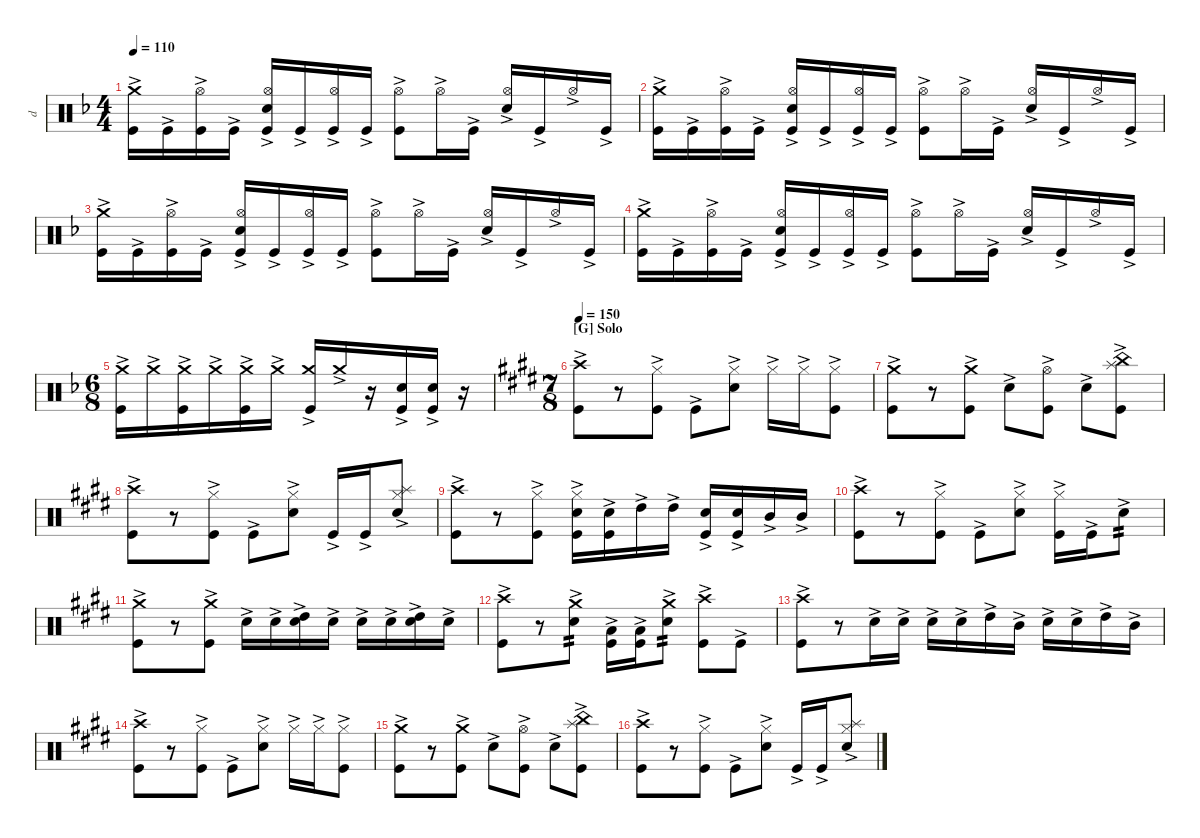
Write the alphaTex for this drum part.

\defaultSystemsLayout 4
\hideDynamics
\bracketExtendMode nobrackets
\otherSystemsTrackNameOrientation horizontal
\track ("Drumkit" "d") {instrument percussion}
\staff {score}
\articulation defaults
\ts (4 4)
\tempo 110
\clef neutral
\ks dminor
("Crash medium (hit)"{ac acc forcenatural} "Kick (hit)"{ac acc forcenatural}).16{dy ff beam Down} "Kick (hit)"{ac acc forcenatural}.16{dy mf beam Down} ("Hi-Hat (open)"{ac acc forcenatural} "Kick (hit)"{ac acc forcenatural}).16{beam Down} "Kick (hit)"{ac acc forcenatural}.16{beam Down} ("Hi-Hat (open)"{ac acc forcenatural} "Snare (hit) 2"{ac acc forcenatural} "Kick (hit)"{ac acc forcenatural}).16{beam Up} "Kick (hit)"{ac acc forcenatural}.16{beam Up} ("Hi-Hat (open)"{ac acc forcenatural} "Kick (hit)"{ac acc forcenatural}).16{beam Up} "Kick (hit)"{ac acc forcenatural}.16{beam Up} ("Hi-Hat (open)"{ac acc forcenatural} "Kick (hit)"{ac acc forcenatural}).8{beam Down} "Hi-Hat (open)"{ac acc forcenatural}.16{beam Down} "Kick (hit)"{ac acc forcenatural}.16{beam Down} ("Hi-Hat (open)"{ac acc forcenatural} "Snare (hit) 2"{ac acc forcenatural}).16{beam Up} "Kick (hit)"{ac acc forcenatural}.16{beam Up} "Hi-Hat (open)"{ac acc forcenatural}.16{beam Up} "Kick (hit)"{ac acc forcenatural}.16{beam Up} |
("Crash medium (hit)"{ac acc forcenatural} "Kick (hit)"{ac acc forcenatural}).16{dy ff beam Down} "Kick (hit)"{ac acc forcenatural}.16{dy mf beam Down} ("Hi-Hat (open)"{ac acc forcenatural} "Kick (hit)"{ac acc forcenatural}).16{beam Down} "Kick (hit)"{ac acc forcenatural}.16{beam Down} ("Hi-Hat (open)"{ac acc forcenatural} "Snare (hit) 2"{ac acc forcenatural} "Kick (hit)"{ac acc forcenatural}).16{beam Up} "Kick (hit)"{ac acc forcenatural}.16{beam Up} ("Hi-Hat (open)"{ac acc forcenatural} "Kick (hit)"{ac acc forcenatural}).16{beam Up} "Kick (hit)"{ac acc forcenatural}.16{beam Up} ("Hi-Hat (open)"{ac acc forcenatural} "Kick (hit)"{ac acc forcenatural}).8{beam Down} "Hi-Hat (open)"{ac acc forcenatural}.16{beam Down} "Kick (hit)"{ac acc forcenatural}.16{beam Down} ("Hi-Hat (open)"{ac acc forcenatural} "Snare (hit) 2"{ac acc forcenatural}).16{beam Up} "Kick (hit)"{ac acc forcenatural}.16{beam Up} "Hi-Hat (open)"{ac acc forcenatural}.16{beam Up} "Kick (hit)"{ac acc forcenatural}.16{beam Up} |
("Crash medium (hit)"{ac acc forcenatural} "Kick (hit)"{ac acc forcenatural}).16{dy ff beam Down} "Kick (hit)"{ac acc forcenatural}.16{dy mf beam Down} ("Hi-Hat (open)"{ac acc forcenatural} "Kick (hit)"{ac acc forcenatural}).16{beam Down} "Kick (hit)"{ac acc forcenatural}.16{beam Down} ("Hi-Hat (open)"{ac acc forcenatural} "Snare (hit) 2"{ac acc forcenatural} "Kick (hit)"{ac acc forcenatural}).16{beam Up} "Kick (hit)"{ac acc forcenatural}.16{beam Up} ("Hi-Hat (open)"{ac acc forcenatural} "Kick (hit)"{ac acc forcenatural}).16{beam Up} "Kick (hit)"{ac acc forcenatural}.16{beam Up} ("Hi-Hat (open)"{ac acc forcenatural} "Kick (hit)"{ac acc forcenatural}).8{beam Down} "Hi-Hat (open)"{ac acc forcenatural}.16{beam Down} "Kick (hit)"{ac acc forcenatural}.16{beam Down} ("Hi-Hat (open)"{ac acc forcenatural} "Snare (hit) 2"{ac acc forcenatural}).16{beam Up} "Kick (hit)"{ac acc forcenatural}.16{beam Up} "Hi-Hat (open)"{ac acc forcenatural}.16{beam Up} "Kick (hit)"{ac acc forcenatural}.16{beam Up} |
("Crash medium (hit)"{ac acc forcenatural} "Kick (hit)"{ac acc forcenatural}).16{dy ff beam Down} "Kick (hit)"{ac acc forcenatural}.16{dy mf beam Down} ("Hi-Hat (open)"{ac acc forcenatural} "Kick (hit)"{ac acc forcenatural}).16{beam Down} "Kick (hit)"{ac acc forcenatural}.16{beam Down} ("Hi-Hat (open)"{ac acc forcenatural} "Snare (hit) 2"{ac acc forcenatural} "Kick (hit)"{ac acc forcenatural}).16{beam Up} "Kick (hit)"{ac acc forcenatural}.16{beam Up} ("Hi-Hat (open)"{ac acc forcenatural} "Kick (hit)"{ac acc forcenatural}).16{beam Up} "Kick (hit)"{ac acc forcenatural}.16{beam Up} ("Hi-Hat (open)"{ac acc forcenatural} "Kick (hit)"{ac acc forcenatural}).8{beam Down} "Hi-Hat (open)"{ac acc forcenatural}.16{beam Down} "Kick (hit)"{ac acc forcenatural}.16{beam Down} ("Hi-Hat (open)"{ac acc forcenatural} "Snare (hit) 2"{ac acc forcenatural}).16{beam Up} "Kick (hit)"{ac acc forcenatural}.16{beam Up} "Hi-Hat (open)"{ac acc forcenatural}.16{beam Up} "Kick (hit)"{ac acc forcenatural}.16{beam Up} |
\ts (6 8)
\beaming (8 3 3)
("Crash medium (hit)"{ac acc forcenatural} "Kick (hit)"{ac acc forcenatural}).16{beam Down} "Crash medium (hit)"{ac acc forcenatural}.16{dy ppp beam Down} ("Crash medium (hit)"{ac acc forcenatural} "Kick (hit)"{ac acc forcenatural}).16{dy mf beam Down} "Crash medium (hit)"{ac acc forcenatural}.16{dy ppp beam Down} ("Crash medium (hit)"{ac acc forcenatural} "Kick (hit)"{ac acc forcenatural}).16{dy mf beam Down} "Crash medium (hit)"{ac acc forcenatural}.16{dy ppp beam Down} ("Crash medium (hit)"{ac acc forcenatural} "Kick (hit)"{ac acc forcenatural}).16{dy mf beam Up} "Crash medium (hit)"{ac acc forcenatural}.16{dy ppp beam Up} r.16{beam Up} ("Snare (hit) 2"{ac acc forcenatural} "Kick (hit)"{ac acc forcenatural}).16{dy ff beam Up} ("Snare (hit) 2"{ac acc forcenatural} "Kick (hit)"{ac acc forcenatural}).16{beam Up} r.16{beam Up} |
\ts (7 8)
\beaming (8 3 2 2)
\section ("G" "Solo")
\tempo 150
\ks c#minor
("Crash high (hit)"{ac acc forcenatural} "Kick (hit)"{ac acc forcenatural}).8{dy mf beam Down} r.8{beam Down} ("Hi-Hat (closed)"{ac acc forcenatural} "Kick (hit)"{ac acc forcenatural}).8{beam Down} "Kick (hit)"{ac acc forcenatural}.8{beam Down} ("Hi-Hat (closed)"{ac acc forcenatural} "Snare (hit) 2"{ac acc forcenatural}).8{beam Down} "Hi-Hat (closed)"{ac acc forcenatural}.16{beam Down} "Hi-Hat (closed)"{ac acc forcenatural}.16{beam Down} ("Hi-Hat (closed)"{ac acc forcenatural} "Kick (hit)"{ac acc forcenatural}).8{beam Down} |
("Crash medium (hit)"{ac acc forcenatural} "Kick (hit)"{ac acc forcenatural}).8{beam Down} r.8{beam Down} ("Crash medium (hit)"{ac acc forcenatural} "Kick (hit)"{ac acc forcenatural}).8{beam Down} "Snare (hit) 2"{ac acc forcenatural}.8{beam Down} ("Hi-Hat (open)"{ac acc forcenatural} "Kick (hit)"{ac acc forcenatural}).8{beam Down} "Snare (hit) 2"{ac acc forcenatural}.8{beam Down} ("China (hit)"{ac acc forcenatural} "Splash (hit)"{ac acc forcenatural} "Kick (hit)"{ac acc forcenatural}).8{beam Down} |
("Crash high (hit)"{ac acc forcenatural} "Kick (hit)"{ac acc forcenatural}).8{beam Down} r.8{beam Down} ("Hi-Hat (closed)"{ac acc forcenatural} "Kick (hit)"{ac acc forcenatural}).8{beam Down} "Kick (hit)"{ac acc forcenatural}.8{beam Down} ("Hi-Hat (closed)"{ac acc forcenatural} "Snare (hit) 2"{ac acc forcenatural}).8{beam Down} "Kick (hit)"{ac acc forcenatural}.16{beam Up} "Kick (hit)"{ac acc forcenatural}.16{beam Up} ("Splash (hit)"{ac acc forcenatural} "Hi-Hat (closed)"{ac acc forcenatural} "Snare (hit) 2"{ac acc forcenatural}).8{beam Up} |
("Crash high (hit)"{ac acc forcenatural} "Kick (hit)"{ac acc forcenatural}).8{beam Down} r.8{beam Down} ("Hi-Hat (closed)"{ac acc forcenatural} "Kick (hit)"{ac acc forcenatural}).8{beam Down} ("Hi-Hat (closed)"{ac acc forcenatural} "Snare (hit) 2"{ac acc forcenatural} "Kick (hit)"{ac acc forcenatural}).16{beam Down} ("Snare (hit) 2"{ac acc forcenatural} "Kick (hit)"{ac acc forcenatural}).16{beam Down} "High Tom (hit)"{ac acc forcenatural}.16{beam Down} "High Tom (hit)"{ac acc forcenatural}.16{beam Down} ("Snare (hit) 2"{ac acc forcenatural} "Kick (hit)"{ac acc forcenatural}).16{beam Up} ("Snare (hit) 2"{ac acc forcenatural} "Kick (hit)"{ac acc forcenatural}).16{beam Up} "Mid Tom (hit)"{ac acc forcenatural}.16{beam Up} "Mid Tom (hit)"{ac acc forcenatural}.16{beam Up} |
("Crash high (hit)"{ac acc forcenatural} "Kick (hit)"{ac acc forcenatural}).8{beam Down} r.8{beam Down} ("Hi-Hat (closed)"{ac acc forcenatural} "Kick (hit)"{ac acc forcenatural}).8{beam Down} "Kick (hit)"{ac acc forcenatural}.8{beam Down} ("Hi-Hat (closed)"{ac acc forcenatural} "Snare (hit) 2"{ac acc forcenatural}).8{beam Down} ("Hi-Hat (closed)"{ac acc forcenatural} "Kick (hit)"{ac acc forcenatural}).16{beam Down} "Kick (hit)"{ac acc forcenatural}.16{beam Down} "Snare (hit) 2"{ac acc forcenatural}.8{tp 2 beam Down} |
("Crash medium (hit)"{ac acc forcenatural} "Kick (hit)"{ac acc forcenatural}).8{beam Down} r.8{beam Down} ("Crash medium (hit)"{ac acc forcenatural} "Kick (hit)"{ac acc forcenatural}).8{beam Down} "Snare (hit) 2"{ac acc forcenatural}.16{beam Down} "Snare (hit) 2"{ac acc forcenatural}.16{beam Down} ("High Tom (hit)"{ac acc forcenatural} "Snare (hit) 2"{ac acc forcenatural}).16{beam Down} "Snare (hit) 2"{ac acc forcenatural}.16{beam Down} "Snare (hit) 2"{ac acc forcenatural}.16{beam Down} "Snare (hit) 2"{ac acc forcenatural}.16{beam Down} ("High Tom (hit)"{ac acc forcenatural} "Snare (hit) 2"{ac acc forcenatural}).16{beam Down} "Snare (hit) 2"{ac acc forcenatural}.16{beam Down} |
("Crash high (hit)"{ac acc forcenatural} "Kick (hit)"{ac acc forcenatural}).8{beam Down} r.8{beam Down} ("Crash medium (hit)"{ac acc forcenatural} "Snare (hit) 2"{ac acc forcenatural}).8{tp 2 beam Down} ("Low Floor Tom (hit)"{ac acc forcenatural} "Kick (hit)"{ac acc forcenatural}).16{beam Down} ("Low Floor Tom (hit)"{ac acc forcenatural} "Kick (hit)"{ac acc forcenatural}).16{beam Down} ("Crash medium (hit)"{ac acc forcenatural} "Snare (hit) 2"{ac acc forcenatural}).8{tp 2 beam Down} ("Crash high (hit)"{ac acc forcenatural} "Kick (hit)"{ac acc forcenatural}).8{beam Down} "Kick (hit)"{ac acc forcenatural}.8{beam Down} |
("Crash high (hit)"{ac acc forcenatural} "Kick (hit)"{ac acc forcenatural}).8{beam Down} r.8{beam Down} "Snare (hit) 2"{ac acc forcenatural}.16{beam Down} "Snare (hit) 2"{ac acc forcenatural}.16{beam Down} "Snare (hit) 2"{ac acc forcenatural}.16{beam Down} "Snare (hit) 2"{ac acc forcenatural}.16{beam Down} "High Tom (hit)"{ac acc forcenatural}.16{beam Down} "Mid Tom (hit)"{ac acc forcenatural}.16{beam Down} "Snare (hit) 2"{ac acc forcenatural}.16{beam Down} "Snare (hit) 2"{ac acc forcenatural}.16{beam Down} "High Tom (hit)"{ac acc forcenatural}.16{beam Down} "Mid Tom (hit)"{ac acc forcenatural}.16{beam Down} |
("Crash high (hit)"{ac acc forcenatural} "Kick (hit)"{ac acc forcenatural}).8{beam Down} r.8{beam Down} ("Hi-Hat (closed)"{ac acc forcenatural} "Kick (hit)"{ac acc forcenatural}).8{beam Down} "Kick (hit)"{ac acc forcenatural}.8{beam Down} ("Hi-Hat (closed)"{ac acc forcenatural} "Snare (hit) 2"{ac acc forcenatural}).8{beam Down} "Hi-Hat (closed)"{ac acc forcenatural}.16{beam Down} "Hi-Hat (closed)"{ac acc forcenatural}.16{beam Down} ("Hi-Hat (closed)"{ac acc forcenatural} "Kick (hit)"{ac acc forcenatural}).8{beam Down} |
("Crash medium (hit)"{ac acc forcenatural} "Kick (hit)"{ac acc forcenatural}).8{beam Down} r.8{beam Down} ("Crash medium (hit)"{ac acc forcenatural} "Kick (hit)"{ac acc forcenatural}).8{beam Down} "Snare (hit) 2"{ac acc forcenatural}.8{beam Down} ("Hi-Hat (open)"{ac acc forcenatural} "Kick (hit)"{ac acc forcenatural}).8{beam Down} "Snare (hit) 2"{ac acc forcenatural}.8{beam Down} ("China (hit)"{ac acc forcenatural} "Splash (hit)"{ac acc forcenatural} "Kick (hit)"{ac acc forcenatural}).8{beam Down} |
("Crash high (hit)"{ac acc forcenatural} "Kick (hit)"{ac acc forcenatural}).8{beam Down} r.8{beam Down} ("Hi-Hat (closed)"{ac acc forcenatural} "Kick (hit)"{ac acc forcenatural}).8{beam Down} "Kick (hit)"{ac acc forcenatural}.8{beam Down} ("Hi-Hat (closed)"{ac acc forcenatural} "Snare (hit) 2"{ac acc forcenatural}).8{beam Down} "Kick (hit)"{ac acc forcenatural}.16{beam Up} "Kick (hit)"{ac acc forcenatural}.16{beam Up} ("Splash (hit)"{ac acc forcenatural} "Hi-Hat (closed)"{ac acc forcenatural} "Snare (hit) 2"{ac acc forcenatural}).8{beam Up}
